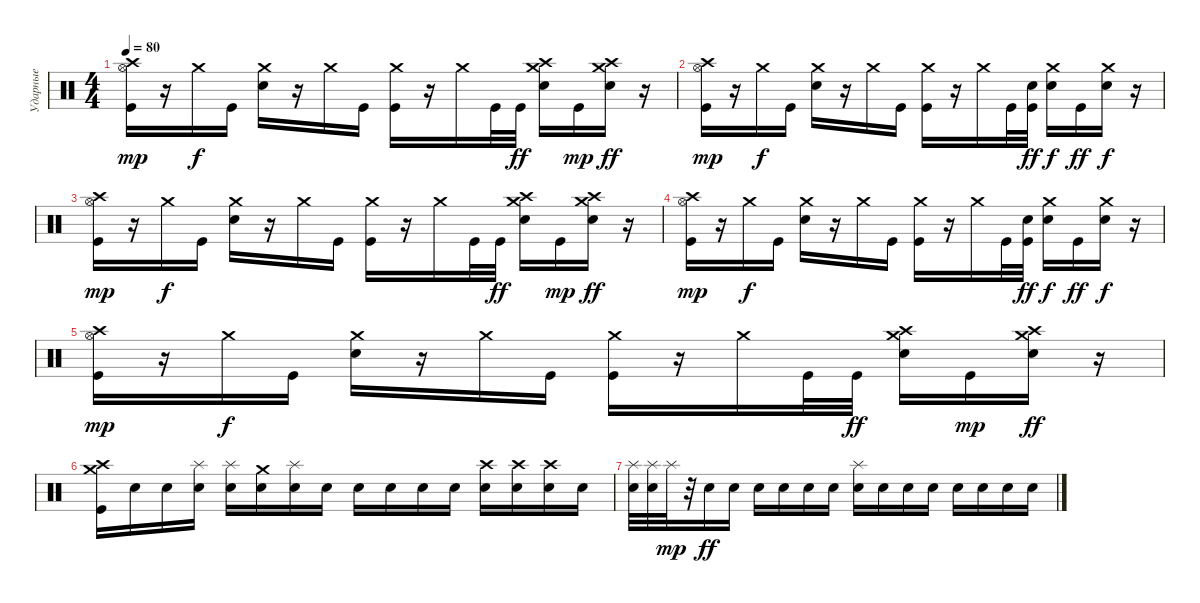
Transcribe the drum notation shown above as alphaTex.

\track ("Ударные" "Ударные") {instrument percussion}
\staff {score}
\articulation defaults
\ts (4 4)
\tempo 80
\clef neutral
\ks c
("Crash high (hit)" "Hi-Hat (open)" "Kick (hit)").16{dy mp} r.16 "Crash medium (hit)".16{dy f} "Kick (hit)".16 ("Crash medium (hit)" "Electric Snare (hit)").16 r.16 "Crash medium (hit)".16 "Kick (hit)".16 ("Crash medium (hit)" "Kick (hit)").16 r.16 "Crash medium (hit)".16 "Kick (hit)".32 "Kick (hit)".32{dy ff} ("Crash high (hit)" "Crash medium (hit)" "Electric Snare (hit)").16 "Kick (hit)".16{dy mp} ("Crash medium (hit)" "Crash high (hit)" "Electric Snare (hit)").16{dy ff} r.16 |
("Crash high (hit)" "Hi-Hat (open)" "Kick (hit)").16{dy mp} r.16 "Crash medium (hit)".16{dy f} "Kick (hit)".16 ("Crash medium (hit)" "Electric Snare (hit)").16 r.16 "Crash medium (hit)".16 "Kick (hit)".16 ("Crash medium (hit)" "Kick (hit)").16 r.16 "Crash medium (hit)".16 "Kick (hit)".32 ("Snare (hit)" "Kick (hit)").32{dy ff} ("Crash medium (hit)" "Electric Snare (hit)").16{dy f} "Kick (hit)".16{dy ff} ("Crash medium (hit)" "Electric Snare (hit)").16{dy f} r.16 |
("Crash high (hit)" "Hi-Hat (open)" "Kick (hit)").16{dy mp} r.16 "Crash medium (hit)".16{dy f} "Kick (hit)".16 ("Crash medium (hit)" "Electric Snare (hit)").16 r.16 "Crash medium (hit)".16 "Kick (hit)".16 ("Crash medium (hit)" "Kick (hit)").16 r.16 "Crash medium (hit)".16 "Kick (hit)".32 "Kick (hit)".32{dy ff} ("Crash high (hit)" "Crash medium (hit)" "Electric Snare (hit)").16 "Kick (hit)".16{dy mp} ("Crash medium (hit)" "Crash high (hit)" "Electric Snare (hit)").16{dy ff} r.16 |
("Crash high (hit)" "Hi-Hat (open)" "Kick (hit)").16{dy mp} r.16 "Crash medium (hit)".16{dy f} "Kick (hit)".16 ("Crash medium (hit)" "Electric Snare (hit)").16 r.16 "Crash medium (hit)".16 "Kick (hit)".16 ("Crash medium (hit)" "Kick (hit)").16 r.16 "Crash medium (hit)".16 "Kick (hit)".32 ("Snare (hit)" "Kick (hit)").32{dy ff} ("Crash medium (hit)" "Electric Snare (hit)").16{dy f} "Kick (hit)".16{dy ff} ("Crash medium (hit)" "Electric Snare (hit)").16{dy f} r.16 |
("Crash high (hit)" "Hi-Hat (open)" "Kick (hit)").16{dy mp} r.16 "Crash medium (hit)".16{dy f} "Kick (hit)".16 ("Crash medium (hit)" "Electric Snare (hit)").16 r.16 "Crash medium (hit)".16 "Kick (hit)".16 ("Crash medium (hit)" "Kick (hit)").16 r.16 "Crash medium (hit)".16 "Kick (hit)".32 "Kick (hit)".32{dy ff} ("Crash high (hit)" "Crash medium (hit)" "Electric Snare (hit)").16 "Kick (hit)".16{dy mp} ("Crash medium (hit)" "Crash high (hit)" "Electric Snare (hit)").16{dy ff} r.16 |
("Crash medium (hit)" "Crash high (hit)" "Kick (hit)").16 "Snare (hit)".16 "Snare (hit)".16 ("Splash (hit)" "Snare (hit)").16 ("Splash (hit)" "Snare (hit)").16 ("Crash medium (hit)" "Snare (hit)").16 ("Splash (hit)" "Snare (hit)").16 "Snare (hit)".16 "Snare (hit)".16 "Snare (hit)".16 "Snare (hit)".16 "Snare (hit)".16 ("Crash high (hit)" "Snare (hit)").16 ("Crash high (hit)" "Snare (hit)").16 ("Crash high (hit)" "Snare (hit)").16 "Snare (hit)".16 |
("Splash (hit)" "Snare (hit)").32 ("Splash (hit)" "Snare (hit)").32 "Splash (hit)".32{dy mp} r.32 "Snare (hit)".16{dy ff} "Snare (hit)".16 "Snare (hit)".16 "Snare (hit)".16 "Snare (hit)".16 "Snare (hit)".16 ("Splash (hit)" "Snare (hit)").16 "Snare (hit)".16 "Snare (hit)".16 "Snare (hit)".16 "Snare (hit)".16 "Snare (hit)".16 "Snare (hit)".16 "Snare (hit)".16
